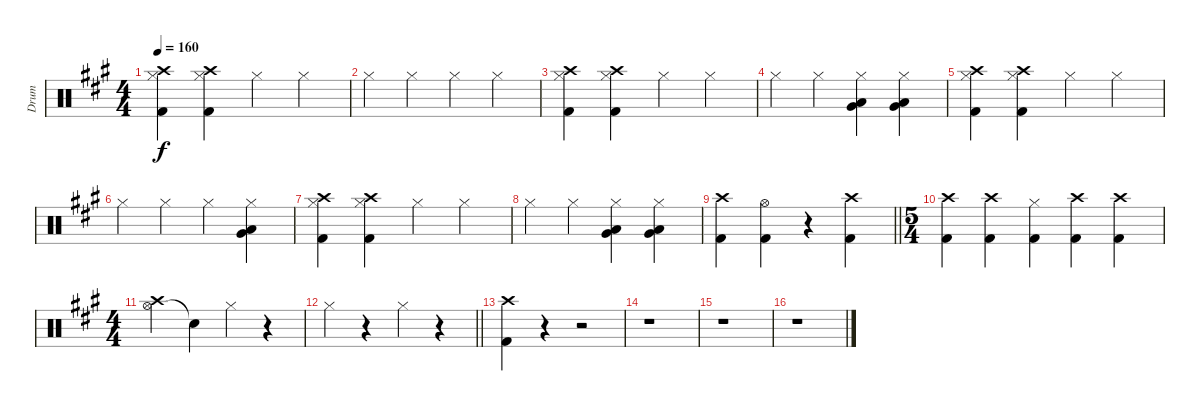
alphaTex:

\track ("Drum" "Drum") {instrument percussion}
\staff {score}
\articulation defaults
\ts (4 4)
\tempo 160
\clef neutral
\ks a
("Hi-Hat (closed)" "Kick (hit) 2" "Crash high (hit)").4{dy f} ("Hi-Hat (closed)" "Kick (hit) 2" "Crash high (hit)").4 "Hi-Hat (closed)".4 "Hi-Hat (closed)".4 |
"Hi-Hat (closed)".4 "Hi-Hat (closed)".4 "Hi-Hat (closed)".4 "Hi-Hat (closed)".4 |
("Hi-Hat (closed)" "Kick (hit) 2" "Crash high (hit)").4 ("Hi-Hat (closed)" "Kick (hit) 2" "Crash high (hit)").4 "Hi-Hat (closed)".4 "Hi-Hat (closed)".4 |
"Hi-Hat (closed)".4 "Hi-Hat (closed)".4 ("Hi-Hat (closed)" "Very Low Tom (hit)" "Low Tom (hit)").4 ("Hi-Hat (closed)" "Very Low Tom (hit)" "Low Tom (hit)").4 |
("Hi-Hat (closed)" "Kick (hit) 2" "Crash high (hit)").4 ("Hi-Hat (closed)" "Kick (hit) 2" "Crash high (hit)").4 "Hi-Hat (closed)".4 "Hi-Hat (closed)".4 |
"Hi-Hat (closed)".4 "Hi-Hat (closed)".4 "Hi-Hat (closed)".4 ("Hi-Hat (closed)" "Very Low Tom (hit)" "Low Tom (hit)").4 |
("Hi-Hat (closed)" "Kick (hit) 2" "Crash high (hit)").4 ("Hi-Hat (closed)" "Kick (hit) 2" "Crash high (hit)").4 "Hi-Hat (closed)".4 "Hi-Hat (closed)".4 |
"Hi-Hat (closed)".4 "Hi-Hat (closed)".4 ("Hi-Hat (closed)" "Very Low Tom (hit)" "Low Tom (hit)").4 ("Hi-Hat (closed)" "Very Low Tom (hit)" "Low Tom (hit)").4 |
\barLineRight lightlight
("Kick (hit) 2" "Crash high (hit)").4 ("Hi-Hat (open)" "Kick (hit) 2").4 r.4 ("Kick (hit) 2" "Crash high (hit)").4 |
\ts (5 4)
("Kick (hit) 2" "Crash high (hit)").4 ("Kick (hit) 2" "Crash high (hit)").4 ("Hi-Hat (closed)" "Kick (hit) 2").4 ("Kick (hit) 2" "Crash high (hit)").4 ("Kick (hit) 2" "Crash high (hit)").4 |
\ts (4 4)
("Hi-Hat (open)" "Crash high (hit)").4 "Snare (hit)"{t}.4 "Hi-Hat (closed)".4 r.4 |
\barLineRight lightlight "Hi-Hat (closed)".4
r.4 "Hi-Hat (closed)".4 r.4 |
("Kick (hit) 2" "Crash high (hit)").4 r.4 r.2 |
r.1 |
r.1 |
r.1
